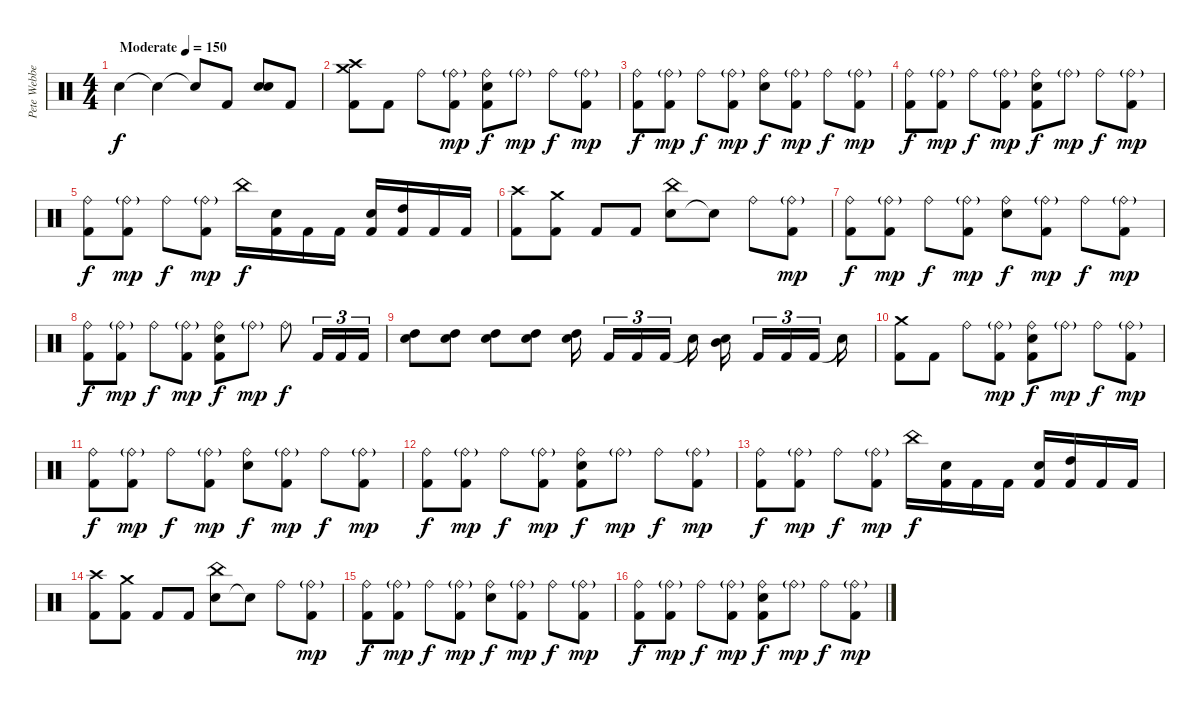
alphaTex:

\track ("Pete Webber" "Pete Webbe") {instrument percussion}
\staff {score}
\articulation defaults
\ts (4 4)
\tempo (150 "Moderate")
\clef neutral
\ks c "Snare (hit)".4{dy f} "Snare (hit)"{t}.4 "Snare (hit)"{t}.8 "Kick (hit) 2".8
("Electric Snare (hit)" "Electric Snare (hit)").8 "Kick (hit) 2".8 |
("Kick (hit) 2" "Crash high (hit)" "Crash medium (hit)").8 "Kick (hit) 2".8 "Ride (bell)".8 ("Ride (bell)"{g} "Kick (hit) 2").8{dy mp} ("Ride (bell)" "Electric Snare (hit)" "Kick (hit) 2").8{dy f} "Ride (bell)"{g}.8{dy mp} "Ride (bell)".8{dy f} ("Ride (bell)"{g} "Kick (hit) 2").8{dy mp} |
("Ride (bell)" "Kick (hit) 2").8{dy f} ("Ride (bell)"{g} "Kick (hit) 2").8{dy mp} "Ride (bell)".8{dy f} ("Ride (bell)"{g} "Kick (hit) 2").8{dy mp} ("Ride (bell)" "Electric Snare (hit)").8{dy f} ("Ride (bell)"{g} "Kick (hit) 2").8{dy mp} "Ride (bell)".8{dy f} ("Ride (bell)"{g} "Kick (hit) 2").8{dy mp} |
("Ride (bell)" "Kick (hit) 2").8{dy f} ("Ride (bell)"{g} "Kick (hit) 2").8{dy mp} "Ride (bell)".8{dy f} ("Ride (bell)"{g} "Kick (hit) 2").8{dy mp} ("Ride (bell)" "Electric Snare (hit)" "Kick (hit) 2").8{dy f} "Ride (bell)"{g}.8{dy mp} "Ride (bell)".8{dy f} ("Ride (bell)"{g} "Kick (hit) 2").8{dy mp} |
("Ride (bell)" "Kick (hit) 2").8{dy f} ("Ride (bell)"{g} "Kick (hit) 2").8{dy mp} "Ride (bell)".8{dy f} ("Ride (bell)"{g} "Kick (hit) 2").8{dy mp} "China (hit)".16{dy f} ("Electric Snare (hit)" "Kick (hit) 2").16 "Kick (hit) 2".16 "Kick (hit) 2".16 ("Electric Snare (hit)" "Kick (hit) 2").16 ("Kick (hit) 2" "High Tom (hit)").16 "Kick (hit) 2".16 "Kick (hit) 2".16 |
("Kick (hit) 2" "Crash high (hit)").8 ("Kick (hit) 2" "Crash medium (hit)").8 "Kick (hit) 2".8 "Kick (hit) 2".8 ("Electric Snare (hit)" "China (hit)").8 "Snare (hit)"{t}.8 "Ride (bell)".8 ("Ride (bell)"{g} "Kick (hit) 2").8{dy mp} |
("Ride (bell)" "Kick (hit) 2").8{dy f} ("Ride (bell)"{g} "Kick (hit) 2").8{dy mp} "Ride (bell)".8{dy f} ("Ride (bell)"{g} "Kick (hit) 2").8{dy mp} ("Ride (bell)" "Electric Snare (hit)").8{dy f} ("Ride (bell)"{g} "Kick (hit) 2").8{dy mp} "Ride (bell)".8{dy f} ("Ride (bell)"{g} "Kick (hit) 2").8{dy mp} |
("Ride (bell)" "Kick (hit) 2").8{dy f} ("Ride (bell)"{g} "Kick (hit) 2").8{dy mp} "Ride (bell)".8{dy f} ("Ride (bell)"{g} "Kick (hit) 2").8{dy mp} ("Ride (bell)" "Electric Snare (hit)" "Kick (hit) 2").8{dy f} "Ride (bell)"{g}.8{dy mp} "Ride (bell)".8{dy f} "Kick (hit) 2".16{tu (3 2)} "Kick (hit) 2".16{tu (3 2)} "Kick (hit) 2".16{tu (3 2)} |
("Electric Snare (hit)" "High Tom (hit)").8 ("Electric Snare (hit)" "High Tom (hit)").8 ("Electric Snare (hit)" "High Tom (hit)").8 ("Electric Snare (hit)" "High Tom (hit)").8 ("Electric Snare (hit)" "High Tom (hit)").16{beam splitsecondary} "Kick (hit) 2".16{tu (3 2)} "Kick (hit) 2".16{tu (3 2)} "Kick (hit) 2".16{tu (3 2) beam splitsecondary} "Snare (hit)"{t}.16 ("Electric Snare (hit)" "Mid Tom (hit)").16{beam splitsecondary} "Kick (hit) 2".16{tu (3 2)} "Kick (hit) 2".16{tu (3 2)} "Kick (hit) 2".16{tu (3 2) beam splitsecondary} "Snare (hit)"{t}.16 |
("Kick (hit) 2" "Crash medium (hit)").8 "Kick (hit) 2".8 "Ride (bell)".8 ("Ride (bell)"{g} "Kick (hit) 2").8{dy mp} ("Ride (bell)" "Electric Snare (hit)" "Kick (hit) 2").8{dy f} "Ride (bell)"{g}.8{dy mp} "Ride (bell)".8{dy f} ("Ride (bell)"{g} "Kick (hit) 2").8{dy mp} |
("Ride (bell)" "Kick (hit) 2").8{dy f} ("Ride (bell)"{g} "Kick (hit) 2").8{dy mp} "Ride (bell)".8{dy f} ("Ride (bell)"{g} "Kick (hit) 2").8{dy mp} ("Ride (bell)" "Electric Snare (hit)").8{dy f} ("Ride (bell)"{g} "Kick (hit) 2").8{dy mp} "Ride (bell)".8{dy f} ("Ride (bell)"{g} "Kick (hit) 2").8{dy mp} |
("Ride (bell)" "Kick (hit) 2").8{dy f} ("Ride (bell)"{g} "Kick (hit) 2").8{dy mp} "Ride (bell)".8{dy f} ("Ride (bell)"{g} "Kick (hit) 2").8{dy mp} ("Ride (bell)" "Electric Snare (hit)" "Kick (hit) 2").8{dy f} "Ride (bell)"{g}.8{dy mp} "Ride (bell)".8{dy f} ("Ride (bell)"{g} "Kick (hit) 2").8{dy mp} |
("Ride (bell)" "Kick (hit) 2").8{dy f} ("Ride (bell)"{g} "Kick (hit) 2").8{dy mp} "Ride (bell)".8{dy f} ("Ride (bell)"{g} "Kick (hit) 2").8{dy mp} "China (hit)".16{dy f} ("Electric Snare (hit)" "Kick (hit) 2").16 "Kick (hit) 2".16 "Kick (hit) 2".16 ("Electric Snare (hit)" "Kick (hit) 2").16 ("Kick (hit) 2" "High Tom (hit)").16 "Kick (hit) 2".16 "Kick (hit) 2".16 |
("Kick (hit) 2" "Crash high (hit)").8 ("Kick (hit) 2" "Crash medium (hit)").8 "Kick (hit) 2".8 "Kick (hit) 2".8 ("Electric Snare (hit)" "China (hit)").8 "Snare (hit)"{t}.8 "Ride (bell)".8 ("Ride (bell)"{g} "Kick (hit) 2").8{dy mp} |
("Ride (bell)" "Kick (hit) 2").8{dy f} ("Ride (bell)"{g} "Kick (hit) 2").8{dy mp} "Ride (bell)".8{dy f} ("Ride (bell)"{g} "Kick (hit) 2").8{dy mp} ("Ride (bell)" "Electric Snare (hit)").8{dy f} ("Ride (bell)"{g} "Kick (hit) 2").8{dy mp} "Ride (bell)".8{dy f} ("Ride (bell)"{g} "Kick (hit) 2").8{dy mp} |
("Ride (bell)" "Kick (hit) 2").8{dy f} ("Ride (bell)"{g} "Kick (hit) 2").8{dy mp} "Ride (bell)".8{dy f} ("Ride (bell)"{g} "Kick (hit) 2").8{dy mp} ("Ride (bell)" "Electric Snare (hit)" "Kick (hit) 2").8{dy f} "Ride (bell)"{g}.8{dy mp} "Ride (bell)".8{dy f} ("Ride (bell)"{g} "Kick (hit) 2").8{dy mp}
